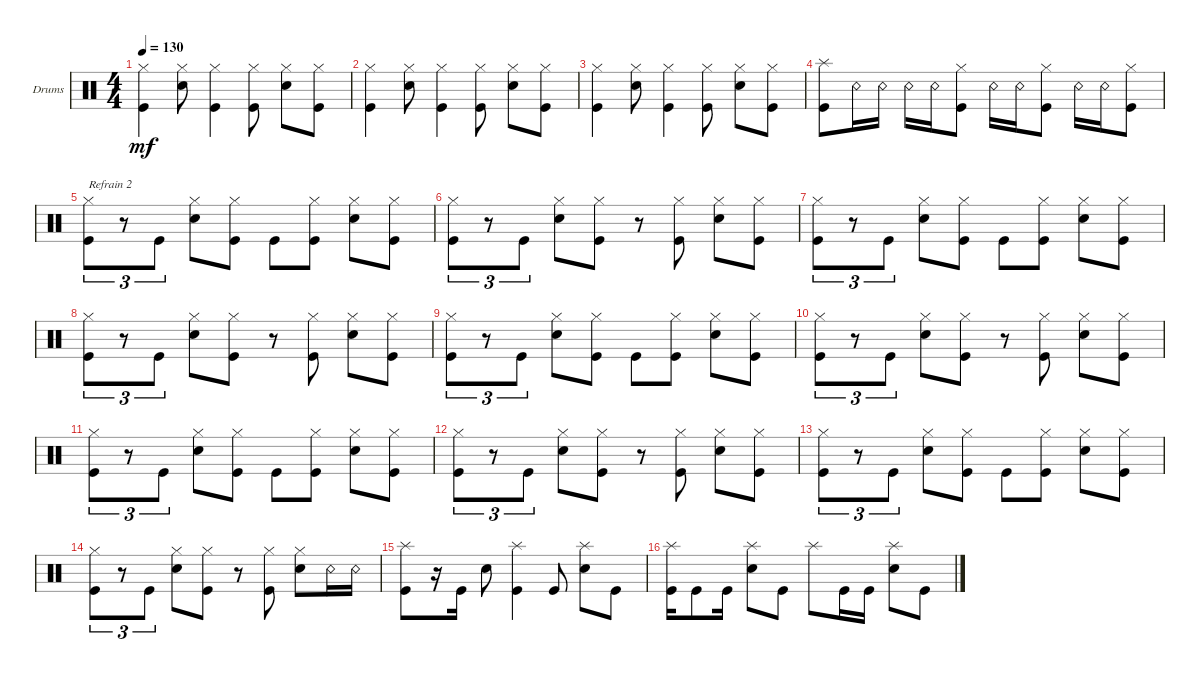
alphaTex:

\defaultSystemsLayout 4
\bracketExtendMode groupsimilarinstruments
\firstSystemTrackNameOrientation horizontal
\otherSystemsTrackNameOrientation horizontal
\track ("Drumkit" "Drums") {instrument percussion}
\staff {score}
\articulation defaults
\ts (4 4)
\tempo 130
\clef neutral
\ks c
("Kick (hit)" "Hi-Hat (closed)").4{dy mf} ("Snare (hit) 2" "Hi-Hat (closed)").8 ("Kick (hit)" "Hi-Hat (closed)").4 ("Kick (hit)" "Hi-Hat (closed)").8 ("Snare (hit) 2" "Hi-Hat (closed)").8 ("Kick (hit)" "Hi-Hat (closed)").8 |
("Kick (hit)" "Hi-Hat (closed)").4 ("Snare (hit) 2" "Hi-Hat (closed)").8 ("Kick (hit)" "Hi-Hat (closed)").4 ("Kick (hit)" "Hi-Hat (closed)").8 ("Snare (hit) 2" "Hi-Hat (closed)").8 ("Kick (hit)" "Hi-Hat (closed)").8 |
("Kick (hit)" "Hi-Hat (closed)").4 ("Snare (hit) 2" "Hi-Hat (closed)").8 ("Kick (hit)" "Hi-Hat (closed)").4 ("Kick (hit)" "Hi-Hat (closed)").8 ("Snare (hit) 2" "Hi-Hat (closed)").8 ("Kick (hit)" "Hi-Hat (closed)").8 |
("Kick (hit)" "Splash (hit)").8 "Snare (rim shot)".16 "Snare (rim shot)".16 "Snare (rim shot)".16 "Snare (rim shot)".16 ("Kick (hit)" "Hi-Hat (closed)").8 "Snare (rim shot)".16 "Snare (rim shot)".16 ("Kick (hit)" "Hi-Hat (closed)").8 "Snare (rim shot)".16 "Snare (rim shot)".16 ("Kick (hit)" "Hi-Hat (closed)").8 |
("Kick (hit)" "Hi-Hat (closed)").8{tu (3 2) txt "Refrain 2"} r.8{tu (3 2)} "Kick (hit)".8{tu (3 2)} ("Snare (hit) 2" "Hi-Hat (closed)").8 ("Kick (hit)" "Hi-Hat (closed)").8 "Kick (hit)".8 ("Kick (hit)" "Hi-Hat (closed)").8 ("Snare (hit) 2" "Hi-Hat (closed)").8 ("Kick (hit)" "Hi-Hat (closed)").8 |
("Kick (hit)" "Hi-Hat (closed)").8{tu (3 2)} r.8{tu (3 2)} "Kick (hit)".8{tu (3 2)} ("Snare (hit) 2" "Hi-Hat (closed)").8 ("Kick (hit)" "Hi-Hat (closed)").8 r.8 ("Kick (hit)" "Hi-Hat (closed)").8 ("Snare (hit) 2" "Hi-Hat (closed)").8 ("Kick (hit)" "Hi-Hat (closed)").8 |
("Kick (hit)" "Hi-Hat (closed)").8{tu (3 2)} r.8{tu (3 2)} "Kick (hit)".8{tu (3 2)} ("Snare (hit) 2" "Hi-Hat (closed)").8 ("Kick (hit)" "Hi-Hat (closed)").8 "Kick (hit)".8 ("Kick (hit)" "Hi-Hat (closed)").8 ("Snare (hit) 2" "Hi-Hat (closed)").8 ("Kick (hit)" "Hi-Hat (closed)").8 |
("Kick (hit)" "Hi-Hat (closed)").8{tu (3 2)} r.8{tu (3 2)} "Kick (hit)".8{tu (3 2)} ("Snare (hit) 2" "Hi-Hat (closed)").8 ("Kick (hit)" "Hi-Hat (closed)").8 r.8 ("Kick (hit)" "Hi-Hat (closed)").8 ("Snare (hit) 2" "Hi-Hat (closed)").8 ("Kick (hit)" "Hi-Hat (closed)").8 |
("Kick (hit)" "Hi-Hat (closed)").8{tu (3 2)} r.8{tu (3 2)} "Kick (hit)".8{tu (3 2)} ("Snare (hit) 2" "Hi-Hat (closed)").8 ("Kick (hit)" "Hi-Hat (closed)").8 "Kick (hit)".8 ("Kick (hit)" "Hi-Hat (closed)").8 ("Snare (hit) 2" "Hi-Hat (closed)").8 ("Kick (hit)" "Hi-Hat (closed)").8 |
("Kick (hit)" "Hi-Hat (closed)").8{tu (3 2)} r.8{tu (3 2)} "Kick (hit)".8{tu (3 2)} ("Snare (hit) 2" "Hi-Hat (closed)").8 ("Kick (hit)" "Hi-Hat (closed)").8 r.8 ("Kick (hit)" "Hi-Hat (closed)").8 ("Snare (hit) 2" "Hi-Hat (closed)").8 ("Kick (hit)" "Hi-Hat (closed)").8 |
("Kick (hit)" "Hi-Hat (closed)").8{tu (3 2)} r.8{tu (3 2)} "Kick (hit)".8{tu (3 2)} ("Snare (hit) 2" "Hi-Hat (closed)").8 ("Kick (hit)" "Hi-Hat (closed)").8 "Kick (hit)".8 ("Kick (hit)" "Hi-Hat (closed)").8 ("Snare (hit) 2" "Hi-Hat (closed)").8 ("Kick (hit)" "Hi-Hat (closed)").8 |
("Kick (hit)" "Hi-Hat (closed)").8{tu (3 2)} r.8{tu (3 2)} "Kick (hit)".8{tu (3 2)} ("Snare (hit) 2" "Hi-Hat (closed)").8 ("Kick (hit)" "Hi-Hat (closed)").8 r.8 ("Kick (hit)" "Hi-Hat (closed)").8 ("Snare (hit) 2" "Hi-Hat (closed)").8 ("Kick (hit)" "Hi-Hat (closed)").8 |
("Kick (hit)" "Hi-Hat (closed)").8{tu (3 2)} r.8{tu (3 2)} "Kick (hit)".8{tu (3 2)} ("Snare (hit) 2" "Hi-Hat (closed)").8 ("Kick (hit)" "Hi-Hat (closed)").8 "Kick (hit)".8 ("Kick (hit)" "Hi-Hat (closed)").8 ("Snare (hit) 2" "Hi-Hat (closed)").8 ("Kick (hit)" "Hi-Hat (closed)").8 |
("Kick (hit)" "Hi-Hat (closed)").8{tu (3 2)} r.8{tu (3 2)} "Kick (hit)".8{tu (3 2)} ("Snare (hit) 2" "Hi-Hat (closed)").8 ("Kick (hit)" "Hi-Hat (closed)").8 r.8 ("Kick (hit)" "Hi-Hat (closed)").8 ("Snare (hit) 2" "Hi-Hat (closed)").8 "Snare (rim shot)".16 "Snare (rim shot)".16 |
("Kick (hit)" "Splash (hit)").8 r.16 "Kick (hit)".16 "Snare (hit) 2".8 ("Kick (hit)" "Splash (hit)").4 "Kick (hit)".8 ("Snare (hit) 2" "Splash (hit)").8 "Kick (hit)".8 |
("Kick (hit)" "Splash (hit)").16 "Kick (hit)".8 "Kick (hit)".16 ("Snare (hit) 2" "Splash (hit)").8 "Kick (hit)".8 "Splash (hit)".8 "Kick (hit)".16 "Kick (hit)".16 ("Snare (hit) 2" "Splash (hit)").8 "Kick (hit)".8
